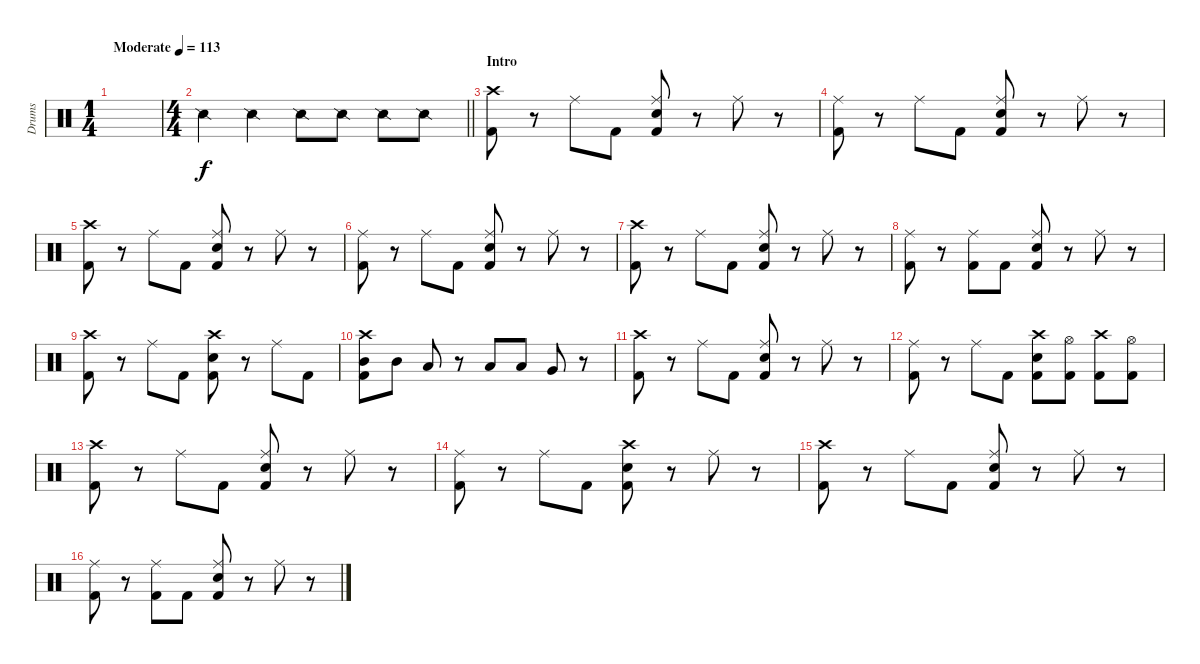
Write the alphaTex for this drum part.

\track ("Drums" "Drums") {instrument percussion}
\staff {score}
\articulation defaults
\ts (1 4)
\tempo (113 "Moderate")
\clef neutral
\ks c
|
\ts (4 4)
\barLineRight lightlight "Snare (side stick) 2".4 "Snare (side stick) 2".4 "Snare (side stick) 2".8 "Snare (side stick) 2".8 "Snare (side stick) 2".8 "Snare (side stick) 2".8
|
\section ("" "Intro")
("Crash high (hit)" "Kick (hit) 2").8 r.8 "Ride (middle)".8 "Kick (hit) 2".8 ("Ride (middle)" "Snare (hit) 2" "Kick (hit) 2").8 r.8 "Ride (middle)".8 r.8 |
("Ride (middle)" "Kick (hit) 2").8 r.8 "Ride (middle)".8 "Kick (hit) 2".8 ("Ride (middle)" "Snare (hit) 2" "Kick (hit) 2").8 r.8 "Ride (middle)".8 r.8 |
("Crash high (hit)" "Kick (hit) 2").8 r.8 "Ride (middle)".8 "Kick (hit) 2".8 ("Ride (middle)" "Snare (hit) 2" "Kick (hit) 2").8 r.8 "Ride (middle)".8 r.8 |
("Ride (middle)" "Kick (hit) 2").8 r.8 "Ride (middle)".8 "Kick (hit) 2".8 ("Ride (middle)" "Snare (hit) 2" "Kick (hit) 2").8 r.8 "Ride (middle)".8 r.8 |
("Crash high (hit)" "Kick (hit) 2").8 r.8 "Ride (middle)".8 "Kick (hit) 2".8 ("Ride (middle)" "Snare (hit) 2" "Kick (hit) 2").8 r.8 "Ride (middle)".8 r.8 |
("Ride (middle)" "Kick (hit) 2").8 r.8 ("Ride (middle)" "Kick (hit) 2").8 "Kick (hit) 2".8 ("Ride (middle)" "Snare (hit) 2" "Kick (hit) 2").8 r.8 "Ride (middle)".8 r.8 |
("Crash high (hit)" "Kick (hit) 2").8 r.8 "Ride (middle)".8 "Kick (hit) 2".8 ("Crash high (hit)" "Snare (hit) 2" "Kick (hit) 2").8 r.8 "Ride (middle)".8 "Kick (hit) 2".8 |
("Crash high (hit)" "Mid Tom (hit)" "Kick (hit) 2").8 "Mid Tom (hit)".8 "Low Tom (hit)".8 r.8 "Low Tom (hit)".8 "Low Tom (hit)".8 "Very Low Tom (hit)".8 r.8 |
("Crash high (hit)" "Kick (hit) 2").8 r.8 "Ride (middle)".8 "Kick (hit) 2".8 ("Ride (middle)" "Snare (hit) 2" "Kick (hit) 2").8 r.8 "Ride (middle)".8 r.8 |
("Ride (middle)" "Kick (hit) 2").8 r.8 "Ride (middle)".8 "Kick (hit) 2".8 ("Crash high (hit)" "Snare (hit) 2" "Kick (hit) 2").8 ("Hi-Hat (open)" "Kick (hit) 2").8 ("Crash high (hit)" "Kick (hit) 2").8 ("Hi-Hat (open)" "Kick (hit) 2").8 |
("Crash high (hit)" "Kick (hit) 2").8 r.8 "Ride (middle)".8 "Kick (hit) 2".8 ("Ride (middle)" "Snare (hit) 2" "Kick (hit) 2").8 r.8 "Ride (middle)".8 r.8 |
("Ride (middle)" "Kick (hit) 2").8 r.8 "Ride (middle)".8 "Kick (hit) 2".8 ("Crash high (hit)" "Snare (hit) 2" "Kick (hit) 2").8 r.8 "Ride (middle)".8 r.8 |
("Crash high (hit)" "Kick (hit) 2").8 r.8 "Ride (middle)".8 "Kick (hit) 2".8 ("Ride (middle)" "Snare (hit) 2" "Kick (hit) 2").8 r.8 "Ride (middle)".8 r.8 |
("Ride (middle)" "Kick (hit) 2").8 r.8 ("Ride (middle)" "Kick (hit) 2").8 "Kick (hit) 2".8 ("Ride (middle)" "Snare (hit) 2" "Kick (hit) 2").8 r.8 "Ride (middle)".8 r.8
